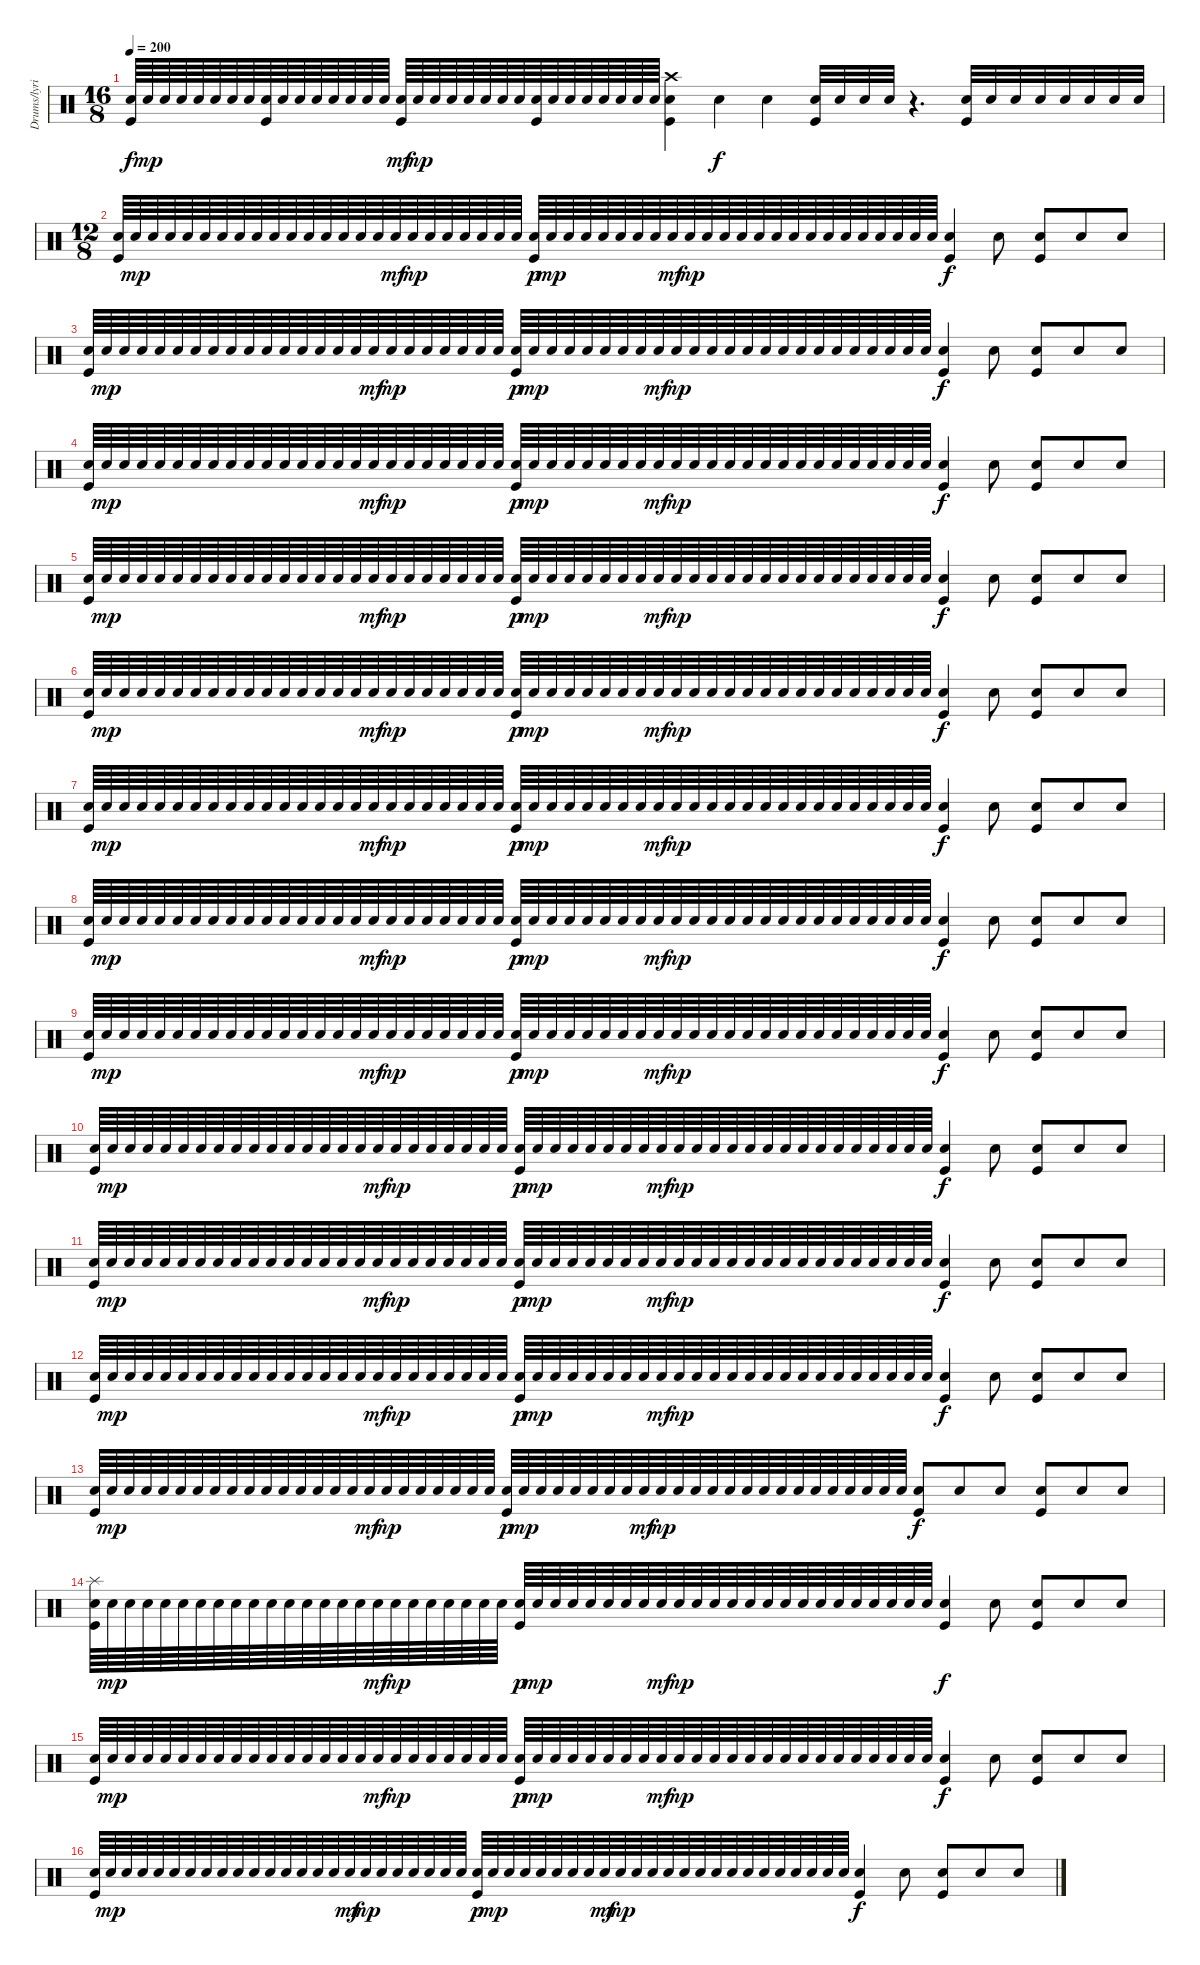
\track ("Drums/lyrics" "Drums/lyri") {instrument percussion}
\staff {score}
\articulation defaults
\ts (16 8)
\tempo 200
\clef neutral
\ks c
("Snare (hit) 2" "Kick (hit)").64{dy f} "Snare (hit) 2".64{dy mp} "Snare (hit) 2".64 "Snare (hit) 2".64 "Snare (hit) 2".64 "Snare (hit) 2".64 "Snare (hit) 2".64 "Snare (hit) 2".64 ("Snare (hit) 2" "Kick (hit)").64 "Snare (hit) 2".64 "Snare (hit) 2".64 "Snare (hit) 2".64 "Snare (hit) 2".64 "Snare (hit) 2".64 "Snare (hit) 2".64 "Snare (hit) 2".64 ("Snare (hit) 2" "Kick (hit)").64{dy mf} "Snare (hit) 2".64{dy mp} "Snare (hit) 2".64 "Snare (hit) 2".64 "Snare (hit) 2".64 "Snare (hit) 2".64 "Snare (hit) 2".64 "Snare (hit) 2".64 ("Snare (hit) 2" "Kick (hit)").64 "Snare (hit) 2".64 "Snare (hit) 2".64 "Snare (hit) 2".64 "Snare (hit) 2".64 "Snare (hit) 2".64 "Snare (hit) 2".64 "Snare (hit) 2".64 ("Crash high (hit)" "Snare (hit) 2" "Kick (hit)").4 "Snare (hit)".4{dy f} "Snare (hit)".4 ("Snare (hit) 2" "Kick (hit)").32 "Snare (hit) 2".32 "Snare (hit) 2".32 "Snare (hit) 2".32 r.4{d} ("Snare (hit) 2" "Kick (hit)").32 "Snare (hit) 2".32 "Snare (hit) 2".32 "Snare (hit) 2".32 "Snare (hit) 2".32 "Snare (hit) 2".32 "Snare (hit) 2".32 "Snare (hit) 2".32 |
\ts (12 8)
("Snare (hit) 2" "Kick (hit)").64 "Snare (hit) 2".64{dy mp} "Snare (hit) 2".64 "Snare (hit) 2".64 "Snare (hit) 2".64 "Snare (hit) 2".64 "Snare (hit) 2".64 "Snare (hit) 2".64 "Snare (hit) 2".64 "Snare (hit) 2".64 "Snare (hit) 2".64 "Snare (hit) 2".64 "Snare (hit) 2".64 "Snare (hit) 2".64 "Snare (hit) 2".64 "Snare (hit) 2".64 "Snare (hit) 2".64{dy mf} "Snare (hit) 2".64{dy mp} "Snare (hit) 2".64 "Snare (hit) 2".64 "Snare (hit) 2".64 "Snare (hit) 2".64 "Snare (hit) 2".64 "Snare (hit) 2".64 ("Snare (hit) 2" "Kick (hit)").64{dy p} "Snare (hit) 2".64{dy mp} "Snare (hit) 2".64 "Snare (hit) 2".64 "Snare (hit) 2".64 "Snare (hit) 2".64 "Snare (hit) 2".64 "Snare (hit) 2".64 "Snare (hit) 2".64{dy mf} "Snare (hit) 2".64{dy mp} "Snare (hit) 2".64 "Snare (hit) 2".64 "Snare (hit) 2".64 "Snare (hit) 2".64 "Snare (hit) 2".64 "Snare (hit) 2".64 "Snare (hit) 2".64 "Snare (hit) 2".64 "Snare (hit) 2".64 "Snare (hit) 2".64 "Snare (hit) 2".64 "Snare (hit) 2".64 "Snare (hit) 2".64 "Snare (hit) 2".64 ("Snare (hit) 2" "Kick (hit)").4{dy f} "Snare (hit) 2".8 ("Snare (hit) 2" "Kick (hit)").8 "Snare (hit) 2".8 "Snare (hit) 2".8 |
("Snare (hit) 2" "Kick (hit)").64 "Snare (hit) 2".64{dy mp} "Snare (hit) 2".64 "Snare (hit) 2".64 "Snare (hit) 2".64 "Snare (hit) 2".64 "Snare (hit) 2".64 "Snare (hit) 2".64 "Snare (hit) 2".64 "Snare (hit) 2".64 "Snare (hit) 2".64 "Snare (hit) 2".64 "Snare (hit) 2".64 "Snare (hit) 2".64 "Snare (hit) 2".64 "Snare (hit) 2".64 "Snare (hit) 2".64{dy mf} "Snare (hit) 2".64{dy mp} "Snare (hit) 2".64 "Snare (hit) 2".64 "Snare (hit) 2".64 "Snare (hit) 2".64 "Snare (hit) 2".64 "Snare (hit) 2".64 ("Snare (hit) 2" "Kick (hit)").64{dy p} "Snare (hit) 2".64{dy mp} "Snare (hit) 2".64 "Snare (hit) 2".64 "Snare (hit) 2".64 "Snare (hit) 2".64 "Snare (hit) 2".64 "Snare (hit) 2".64 "Snare (hit) 2".64{dy mf} "Snare (hit) 2".64{dy mp} "Snare (hit) 2".64 "Snare (hit) 2".64 "Snare (hit) 2".64 "Snare (hit) 2".64 "Snare (hit) 2".64 "Snare (hit) 2".64 "Snare (hit) 2".64 "Snare (hit) 2".64 "Snare (hit) 2".64 "Snare (hit) 2".64 "Snare (hit) 2".64 "Snare (hit) 2".64 "Snare (hit) 2".64 "Snare (hit) 2".64 ("Snare (hit) 2" "Kick (hit)").4{dy f} "Snare (hit) 2".8 ("Snare (hit) 2" "Kick (hit)").8 "Snare (hit) 2".8 "Snare (hit) 2".8 |
("Snare (hit) 2" "Kick (hit)").64 "Snare (hit) 2".64{dy mp} "Snare (hit) 2".64 "Snare (hit) 2".64 "Snare (hit) 2".64 "Snare (hit) 2".64 "Snare (hit) 2".64 "Snare (hit) 2".64 "Snare (hit) 2".64 "Snare (hit) 2".64 "Snare (hit) 2".64 "Snare (hit) 2".64 "Snare (hit) 2".64 "Snare (hit) 2".64 "Snare (hit) 2".64 "Snare (hit) 2".64 "Snare (hit) 2".64{dy mf} "Snare (hit) 2".64{dy mp} "Snare (hit) 2".64 "Snare (hit) 2".64 "Snare (hit) 2".64 "Snare (hit) 2".64 "Snare (hit) 2".64 "Snare (hit) 2".64 ("Snare (hit) 2" "Kick (hit)").64{dy p} "Snare (hit) 2".64{dy mp} "Snare (hit) 2".64 "Snare (hit) 2".64 "Snare (hit) 2".64 "Snare (hit) 2".64 "Snare (hit) 2".64 "Snare (hit) 2".64 "Snare (hit) 2".64{dy mf} "Snare (hit) 2".64{dy mp} "Snare (hit) 2".64 "Snare (hit) 2".64 "Snare (hit) 2".64 "Snare (hit) 2".64 "Snare (hit) 2".64 "Snare (hit) 2".64 "Snare (hit) 2".64 "Snare (hit) 2".64 "Snare (hit) 2".64 "Snare (hit) 2".64 "Snare (hit) 2".64 "Snare (hit) 2".64 "Snare (hit) 2".64 "Snare (hit) 2".64 ("Snare (hit) 2" "Kick (hit)").4{dy f} "Snare (hit) 2".8 ("Snare (hit) 2" "Kick (hit)").8 "Snare (hit) 2".8 "Snare (hit) 2".8 |
("Snare (hit) 2" "Kick (hit)").64 "Snare (hit) 2".64{dy mp} "Snare (hit) 2".64 "Snare (hit) 2".64 "Snare (hit) 2".64 "Snare (hit) 2".64 "Snare (hit) 2".64 "Snare (hit) 2".64 "Snare (hit) 2".64 "Snare (hit) 2".64 "Snare (hit) 2".64 "Snare (hit) 2".64 "Snare (hit) 2".64 "Snare (hit) 2".64 "Snare (hit) 2".64 "Snare (hit) 2".64 "Snare (hit) 2".64{dy mf} "Snare (hit) 2".64{dy mp} "Snare (hit) 2".64 "Snare (hit) 2".64 "Snare (hit) 2".64 "Snare (hit) 2".64 "Snare (hit) 2".64 "Snare (hit) 2".64 ("Snare (hit) 2" "Kick (hit)").64{dy p} "Snare (hit) 2".64{dy mp} "Snare (hit) 2".64 "Snare (hit) 2".64 "Snare (hit) 2".64 "Snare (hit) 2".64 "Snare (hit) 2".64 "Snare (hit) 2".64 "Snare (hit) 2".64{dy mf} "Snare (hit) 2".64{dy mp} "Snare (hit) 2".64 "Snare (hit) 2".64 "Snare (hit) 2".64 "Snare (hit) 2".64 "Snare (hit) 2".64 "Snare (hit) 2".64 "Snare (hit) 2".64 "Snare (hit) 2".64 "Snare (hit) 2".64 "Snare (hit) 2".64 "Snare (hit) 2".64 "Snare (hit) 2".64 "Snare (hit) 2".64 "Snare (hit) 2".64 ("Snare (hit) 2" "Kick (hit)").4{dy f} "Snare (hit) 2".8 ("Snare (hit) 2" "Kick (hit)").8 "Snare (hit) 2".8 "Snare (hit) 2".8 |
("Snare (hit) 2" "Kick (hit)").64 "Snare (hit) 2".64{dy mp} "Snare (hit) 2".64 "Snare (hit) 2".64 "Snare (hit) 2".64 "Snare (hit) 2".64 "Snare (hit) 2".64 "Snare (hit) 2".64 "Snare (hit) 2".64 "Snare (hit) 2".64 "Snare (hit) 2".64 "Snare (hit) 2".64 "Snare (hit) 2".64 "Snare (hit) 2".64 "Snare (hit) 2".64 "Snare (hit) 2".64 "Snare (hit) 2".64{dy mf} "Snare (hit) 2".64{dy mp} "Snare (hit) 2".64 "Snare (hit) 2".64 "Snare (hit) 2".64 "Snare (hit) 2".64 "Snare (hit) 2".64 "Snare (hit) 2".64 ("Snare (hit) 2" "Kick (hit)").64{dy p} "Snare (hit) 2".64{dy mp} "Snare (hit) 2".64 "Snare (hit) 2".64 "Snare (hit) 2".64 "Snare (hit) 2".64 "Snare (hit) 2".64 "Snare (hit) 2".64 "Snare (hit) 2".64{dy mf} "Snare (hit) 2".64{dy mp} "Snare (hit) 2".64 "Snare (hit) 2".64 "Snare (hit) 2".64 "Snare (hit) 2".64 "Snare (hit) 2".64 "Snare (hit) 2".64 "Snare (hit) 2".64 "Snare (hit) 2".64 "Snare (hit) 2".64 "Snare (hit) 2".64 "Snare (hit) 2".64 "Snare (hit) 2".64 "Snare (hit) 2".64 "Snare (hit) 2".64 ("Snare (hit) 2" "Kick (hit)").4{dy f} "Snare (hit) 2".8 ("Snare (hit) 2" "Kick (hit)").8 "Snare (hit) 2".8 "Snare (hit) 2".8 |
("Snare (hit) 2" "Kick (hit)").64 "Snare (hit) 2".64{dy mp} "Snare (hit) 2".64 "Snare (hit) 2".64 "Snare (hit) 2".64 "Snare (hit) 2".64 "Snare (hit) 2".64 "Snare (hit) 2".64 "Snare (hit) 2".64 "Snare (hit) 2".64 "Snare (hit) 2".64 "Snare (hit) 2".64 "Snare (hit) 2".64 "Snare (hit) 2".64 "Snare (hit) 2".64 "Snare (hit) 2".64 "Snare (hit) 2".64{dy mf} "Snare (hit) 2".64{dy mp} "Snare (hit) 2".64 "Snare (hit) 2".64 "Snare (hit) 2".64 "Snare (hit) 2".64 "Snare (hit) 2".64 "Snare (hit) 2".64 ("Snare (hit) 2" "Kick (hit)").64{dy p} "Snare (hit) 2".64{dy mp} "Snare (hit) 2".64 "Snare (hit) 2".64 "Snare (hit) 2".64 "Snare (hit) 2".64 "Snare (hit) 2".64 "Snare (hit) 2".64 "Snare (hit) 2".64{dy mf} "Snare (hit) 2".64{dy mp} "Snare (hit) 2".64 "Snare (hit) 2".64 "Snare (hit) 2".64 "Snare (hit) 2".64 "Snare (hit) 2".64 "Snare (hit) 2".64 "Snare (hit) 2".64 "Snare (hit) 2".64 "Snare (hit) 2".64 "Snare (hit) 2".64 "Snare (hit) 2".64 "Snare (hit) 2".64 "Snare (hit) 2".64 "Snare (hit) 2".64 ("Snare (hit) 2" "Kick (hit)").4{dy f} "Snare (hit) 2".8 ("Snare (hit) 2" "Kick (hit)").8 "Snare (hit) 2".8 "Snare (hit) 2".8 |
("Snare (hit) 2" "Kick (hit)").64 "Snare (hit) 2".64{dy mp} "Snare (hit) 2".64 "Snare (hit) 2".64 "Snare (hit) 2".64 "Snare (hit) 2".64 "Snare (hit) 2".64 "Snare (hit) 2".64 "Snare (hit) 2".64 "Snare (hit) 2".64 "Snare (hit) 2".64 "Snare (hit) 2".64 "Snare (hit) 2".64 "Snare (hit) 2".64 "Snare (hit) 2".64 "Snare (hit) 2".64 "Snare (hit) 2".64{dy mf} "Snare (hit) 2".64{dy mp} "Snare (hit) 2".64 "Snare (hit) 2".64 "Snare (hit) 2".64 "Snare (hit) 2".64 "Snare (hit) 2".64 "Snare (hit) 2".64 ("Snare (hit) 2" "Kick (hit)").64{dy p} "Snare (hit) 2".64{dy mp} "Snare (hit) 2".64 "Snare (hit) 2".64 "Snare (hit) 2".64 "Snare (hit) 2".64 "Snare (hit) 2".64 "Snare (hit) 2".64 "Snare (hit) 2".64{dy mf} "Snare (hit) 2".64{dy mp} "Snare (hit) 2".64 "Snare (hit) 2".64 "Snare (hit) 2".64 "Snare (hit) 2".64 "Snare (hit) 2".64 "Snare (hit) 2".64 "Snare (hit) 2".64 "Snare (hit) 2".64 "Snare (hit) 2".64 "Snare (hit) 2".64 "Snare (hit) 2".64 "Snare (hit) 2".64 "Snare (hit) 2".64 "Snare (hit) 2".64 ("Snare (hit) 2" "Kick (hit)").4{dy f} "Snare (hit) 2".8 ("Snare (hit) 2" "Kick (hit)").8 "Snare (hit) 2".8 "Snare (hit) 2".8 |
("Snare (hit) 2" "Kick (hit)").64 "Snare (hit) 2".64{dy mp} "Snare (hit) 2".64 "Snare (hit) 2".64 "Snare (hit) 2".64 "Snare (hit) 2".64 "Snare (hit) 2".64 "Snare (hit) 2".64 "Snare (hit) 2".64 "Snare (hit) 2".64 "Snare (hit) 2".64 "Snare (hit) 2".64 "Snare (hit) 2".64 "Snare (hit) 2".64 "Snare (hit) 2".64 "Snare (hit) 2".64 "Snare (hit) 2".64{dy mf} "Snare (hit) 2".64{dy mp} "Snare (hit) 2".64 "Snare (hit) 2".64 "Snare (hit) 2".64 "Snare (hit) 2".64 "Snare (hit) 2".64 "Snare (hit) 2".64 ("Snare (hit) 2" "Kick (hit)").64{dy p} "Snare (hit) 2".64{dy mp} "Snare (hit) 2".64 "Snare (hit) 2".64 "Snare (hit) 2".64 "Snare (hit) 2".64 "Snare (hit) 2".64 "Snare (hit) 2".64 "Snare (hit) 2".64{dy mf} "Snare (hit) 2".64{dy mp} "Snare (hit) 2".64 "Snare (hit) 2".64 "Snare (hit) 2".64 "Snare (hit) 2".64 "Snare (hit) 2".64 "Snare (hit) 2".64 "Snare (hit) 2".64 "Snare (hit) 2".64 "Snare (hit) 2".64 "Snare (hit) 2".64 "Snare (hit) 2".64 "Snare (hit) 2".64 "Snare (hit) 2".64 "Snare (hit) 2".64 ("Snare (hit) 2" "Kick (hit)").4{dy f} "Snare (hit) 2".8 ("Snare (hit) 2" "Kick (hit)").8 "Snare (hit) 2".8 "Snare (hit) 2".8 |
("Snare (hit) 2" "Kick (hit)").64 "Snare (hit) 2".64{dy mp} "Snare (hit) 2".64 "Snare (hit) 2".64 "Snare (hit) 2".64 "Snare (hit) 2".64 "Snare (hit) 2".64 "Snare (hit) 2".64 "Snare (hit) 2".64 "Snare (hit) 2".64 "Snare (hit) 2".64 "Snare (hit) 2".64 "Snare (hit) 2".64 "Snare (hit) 2".64 "Snare (hit) 2".64 "Snare (hit) 2".64 "Snare (hit) 2".64{dy mf} "Snare (hit) 2".64{dy mp} "Snare (hit) 2".64 "Snare (hit) 2".64 "Snare (hit) 2".64 "Snare (hit) 2".64 "Snare (hit) 2".64 "Snare (hit) 2".64 ("Snare (hit) 2" "Kick (hit)").64{dy p} "Snare (hit) 2".64{dy mp} "Snare (hit) 2".64 "Snare (hit) 2".64 "Snare (hit) 2".64 "Snare (hit) 2".64 "Snare (hit) 2".64 "Snare (hit) 2".64 "Snare (hit) 2".64{dy mf} "Snare (hit) 2".64{dy mp} "Snare (hit) 2".64 "Snare (hit) 2".64 "Snare (hit) 2".64 "Snare (hit) 2".64 "Snare (hit) 2".64 "Snare (hit) 2".64 "Snare (hit) 2".64 "Snare (hit) 2".64 "Snare (hit) 2".64 "Snare (hit) 2".64 "Snare (hit) 2".64 "Snare (hit) 2".64 "Snare (hit) 2".64 "Snare (hit) 2".64 ("Snare (hit) 2" "Kick (hit)").4{dy f} "Snare (hit) 2".8 ("Snare (hit) 2" "Kick (hit)").8 "Snare (hit) 2".8 "Snare (hit) 2".8 |
("Snare (hit) 2" "Kick (hit)").64 "Snare (hit) 2".64{dy mp} "Snare (hit) 2".64 "Snare (hit) 2".64 "Snare (hit) 2".64 "Snare (hit) 2".64 "Snare (hit) 2".64 "Snare (hit) 2".64 "Snare (hit) 2".64 "Snare (hit) 2".64 "Snare (hit) 2".64 "Snare (hit) 2".64 "Snare (hit) 2".64 "Snare (hit) 2".64 "Snare (hit) 2".64 "Snare (hit) 2".64 "Snare (hit) 2".64{dy mf} "Snare (hit) 2".64{dy mp} "Snare (hit) 2".64 "Snare (hit) 2".64 "Snare (hit) 2".64 "Snare (hit) 2".64 "Snare (hit) 2".64 "Snare (hit) 2".64 ("Snare (hit) 2" "Kick (hit)").64{dy p} "Snare (hit) 2".64{dy mp} "Snare (hit) 2".64 "Snare (hit) 2".64 "Snare (hit) 2".64 "Snare (hit) 2".64 "Snare (hit) 2".64 "Snare (hit) 2".64 "Snare (hit) 2".64{dy mf} "Snare (hit) 2".64{dy mp} "Snare (hit) 2".64 "Snare (hit) 2".64 "Snare (hit) 2".64 "Snare (hit) 2".64 "Snare (hit) 2".64 "Snare (hit) 2".64 "Snare (hit) 2".64 "Snare (hit) 2".64 "Snare (hit) 2".64 "Snare (hit) 2".64 "Snare (hit) 2".64 "Snare (hit) 2".64 "Snare (hit) 2".64 "Snare (hit) 2".64 ("Snare (hit) 2" "Kick (hit)").4{dy f} "Snare (hit) 2".8 ("Snare (hit) 2" "Kick (hit)").8 "Snare (hit) 2".8 "Snare (hit) 2".8 |
("Snare (hit) 2" "Kick (hit)").64 "Snare (hit) 2".64{dy mp} "Snare (hit) 2".64 "Snare (hit) 2".64 "Snare (hit) 2".64 "Snare (hit) 2".64 "Snare (hit) 2".64 "Snare (hit) 2".64 "Snare (hit) 2".64 "Snare (hit) 2".64 "Snare (hit) 2".64 "Snare (hit) 2".64 "Snare (hit) 2".64 "Snare (hit) 2".64 "Snare (hit) 2".64 "Snare (hit) 2".64 "Snare (hit) 2".64{dy mf} "Snare (hit) 2".64{dy mp} "Snare (hit) 2".64 "Snare (hit) 2".64 "Snare (hit) 2".64 "Snare (hit) 2".64 "Snare (hit) 2".64 "Snare (hit) 2".64 ("Snare (hit) 2" "Kick (hit)").64{dy p} "Snare (hit) 2".64{dy mp} "Snare (hit) 2".64 "Snare (hit) 2".64 "Snare (hit) 2".64 "Snare (hit) 2".64 "Snare (hit) 2".64 "Snare (hit) 2".64 "Snare (hit) 2".64{dy mf} "Snare (hit) 2".64{dy mp} "Snare (hit) 2".64 "Snare (hit) 2".64 "Snare (hit) 2".64 "Snare (hit) 2".64 "Snare (hit) 2".64 "Snare (hit) 2".64 "Snare (hit) 2".64 "Snare (hit) 2".64 "Snare (hit) 2".64 "Snare (hit) 2".64 "Snare (hit) 2".64 "Snare (hit) 2".64 "Snare (hit) 2".64 "Snare (hit) 2".64 ("Snare (hit) 2" "Kick (hit)").4{dy f} "Snare (hit) 2".8 ("Snare (hit) 2" "Kick (hit)").8 "Snare (hit) 2".8 "Snare (hit) 2".8 |
("Snare (hit) 2" "Kick (hit)").64 "Snare (hit) 2".64{dy mp} "Snare (hit) 2".64 "Snare (hit) 2".64 "Snare (hit) 2".64 "Snare (hit) 2".64 "Snare (hit) 2".64 "Snare (hit) 2".64 "Snare (hit) 2".64 "Snare (hit) 2".64 "Snare (hit) 2".64 "Snare (hit) 2".64 "Snare (hit) 2".64 "Snare (hit) 2".64 "Snare (hit) 2".64 "Snare (hit) 2".64 "Snare (hit) 2".64{dy mf} "Snare (hit) 2".64{dy mp} "Snare (hit) 2".64 "Snare (hit) 2".64 "Snare (hit) 2".64 "Snare (hit) 2".64 "Snare (hit) 2".64 "Snare (hit) 2".64 ("Snare (hit) 2" "Kick (hit)").64{dy p} "Snare (hit) 2".64{dy mp} "Snare (hit) 2".64 "Snare (hit) 2".64 "Snare (hit) 2".64 "Snare (hit) 2".64 "Snare (hit) 2".64 "Snare (hit) 2".64 "Snare (hit) 2".64{dy mf} "Snare (hit) 2".64{dy mp} "Snare (hit) 2".64 "Snare (hit) 2".64 "Snare (hit) 2".64 "Snare (hit) 2".64 "Snare (hit) 2".64 "Snare (hit) 2".64 "Snare (hit) 2".64 "Snare (hit) 2".64 "Snare (hit) 2".64 "Snare (hit) 2".64 "Snare (hit) 2".64 "Snare (hit) 2".64 "Snare (hit) 2".64 "Snare (hit) 2".64 ("Snare (hit) 2" "Kick (hit)").8{dy f} "Snare (hit) 2".8 "Snare (hit) 2".8 ("Snare (hit) 2" "Kick (hit)").8 "Snare (hit) 2".8 "Snare (hit) 2".8 |
("Splash (hit)" "Snare (hit) 2" "Kick (hit)").64 "Snare (hit) 2".64{dy mp} "Snare (hit) 2".64 "Snare (hit) 2".64 "Snare (hit) 2".64 "Snare (hit) 2".64 "Snare (hit) 2".64 "Snare (hit) 2".64 "Snare (hit) 2".64 "Snare (hit) 2".64 "Snare (hit) 2".64 "Snare (hit) 2".64 "Snare (hit) 2".64 "Snare (hit) 2".64 "Snare (hit) 2".64 "Snare (hit) 2".64 "Snare (hit) 2".64{dy mf} "Snare (hit) 2".64{dy mp} "Snare (hit) 2".64 "Snare (hit) 2".64 "Snare (hit) 2".64 "Snare (hit) 2".64 "Snare (hit) 2".64 "Snare (hit) 2".64 ("Snare (hit) 2" "Kick (hit)").64{dy p} "Snare (hit) 2".64{dy mp} "Snare (hit) 2".64 "Snare (hit) 2".64 "Snare (hit) 2".64 "Snare (hit) 2".64 "Snare (hit) 2".64 "Snare (hit) 2".64 "Snare (hit) 2".64{dy mf} "Snare (hit) 2".64{dy mp} "Snare (hit) 2".64 "Snare (hit) 2".64 "Snare (hit) 2".64 "Snare (hit) 2".64 "Snare (hit) 2".64 "Snare (hit) 2".64 "Snare (hit) 2".64 "Snare (hit) 2".64 "Snare (hit) 2".64 "Snare (hit) 2".64 "Snare (hit) 2".64 "Snare (hit) 2".64 "Snare (hit) 2".64 "Snare (hit) 2".64 ("Snare (hit) 2" "Kick (hit)").4{dy f} "Snare (hit) 2".8 ("Snare (hit) 2" "Kick (hit)").8 "Snare (hit) 2".8 "Snare (hit) 2".8 |
("Snare (hit) 2" "Kick (hit)").64 "Snare (hit) 2".64{dy mp} "Snare (hit) 2".64 "Snare (hit) 2".64 "Snare (hit) 2".64 "Snare (hit) 2".64 "Snare (hit) 2".64 "Snare (hit) 2".64 "Snare (hit) 2".64 "Snare (hit) 2".64 "Snare (hit) 2".64 "Snare (hit) 2".64 "Snare (hit) 2".64 "Snare (hit) 2".64 "Snare (hit) 2".64 "Snare (hit) 2".64 "Snare (hit) 2".64{dy mf} "Snare (hit) 2".64{dy mp} "Snare (hit) 2".64 "Snare (hit) 2".64 "Snare (hit) 2".64 "Snare (hit) 2".64 "Snare (hit) 2".64 "Snare (hit) 2".64 ("Snare (hit) 2" "Kick (hit)").64{dy p} "Snare (hit) 2".64{dy mp} "Snare (hit) 2".64 "Snare (hit) 2".64 "Snare (hit) 2".64 "Snare (hit) 2".64 "Snare (hit) 2".64 "Snare (hit) 2".64 "Snare (hit) 2".64{dy mf} "Snare (hit) 2".64{dy mp} "Snare (hit) 2".64 "Snare (hit) 2".64 "Snare (hit) 2".64 "Snare (hit) 2".64 "Snare (hit) 2".64 "Snare (hit) 2".64 "Snare (hit) 2".64 "Snare (hit) 2".64 "Snare (hit) 2".64 "Snare (hit) 2".64 "Snare (hit) 2".64 "Snare (hit) 2".64 "Snare (hit) 2".64 "Snare (hit) 2".64 ("Snare (hit) 2" "Kick (hit)").4{dy f} "Snare (hit) 2".8 ("Snare (hit) 2" "Kick (hit)").8 "Snare (hit) 2".8 "Snare (hit) 2".8 |
("Snare (hit) 2" "Kick (hit)").64 "Snare (hit) 2".64{dy mp} "Snare (hit) 2".64 "Snare (hit) 2".64 "Snare (hit) 2".64 "Snare (hit) 2".64 "Snare (hit) 2".64 "Snare (hit) 2".64 "Snare (hit) 2".64 "Snare (hit) 2".64 "Snare (hit) 2".64 "Snare (hit) 2".64 "Snare (hit) 2".64 "Snare (hit) 2".64 "Snare (hit) 2".64 "Snare (hit) 2".64 "Snare (hit) 2".64{dy mf} "Snare (hit) 2".64{dy mp} "Snare (hit) 2".64 "Snare (hit) 2".64 "Snare (hit) 2".64 "Snare (hit) 2".64 "Snare (hit) 2".64 "Snare (hit) 2".64 ("Snare (hit) 2" "Kick (hit)").64{dy p} "Snare (hit) 2".64{dy mp} "Snare (hit) 2".64 "Snare (hit) 2".64 "Snare (hit) 2".64 "Snare (hit) 2".64 "Snare (hit) 2".64 "Snare (hit) 2".64 "Snare (hit) 2".64{dy mf} "Snare (hit) 2".64{dy mp} "Snare (hit) 2".64 "Snare (hit) 2".64 "Snare (hit) 2".64 "Snare (hit) 2".64 "Snare (hit) 2".64 "Snare (hit) 2".64 "Snare (hit) 2".64 "Snare (hit) 2".64 "Snare (hit) 2".64 "Snare (hit) 2".64 "Snare (hit) 2".64 "Snare (hit) 2".64 "Snare (hit) 2".64 "Snare (hit) 2".64 ("Snare (hit) 2" "Kick (hit)").4{dy f} "Snare (hit) 2".8 ("Snare (hit) 2" "Kick (hit)").8 "Snare (hit) 2".8 "Snare (hit) 2".8
